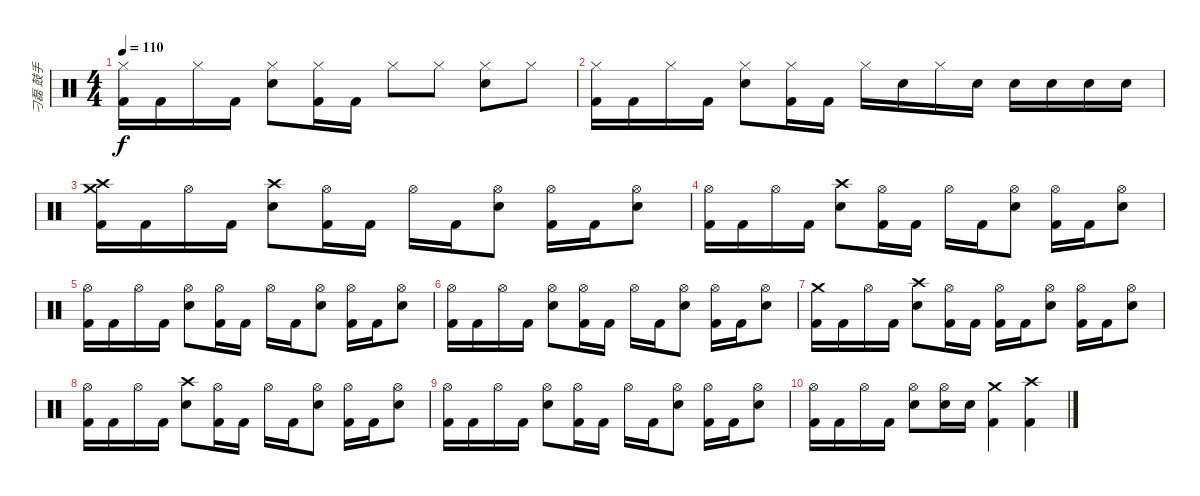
\track ("刁磊 鼓手" "刁磊 鼓手") {instrument percussion}
\staff {score}
\articulation defaults
\ts (4 4)
\tempo 110
\clef neutral
\ks c
("Hi-Hat (closed)" "Kick (hit) 2").16{dy f} "Kick (hit) 2".16 "Hi-Hat (closed)".16 "Kick (hit) 2".16 ("Hi-Hat (closed)" "Snare (hit) 2").8 ("Hi-Hat (closed)" "Kick (hit) 2").16 "Kick (hit) 2".16 "Hi-Hat (closed)".8 "Hi-Hat (closed)".8 ("Hi-Hat (closed)" "Snare (hit) 2").8 "Hi-Hat (closed)".8 |
("Hi-Hat (closed)" "Kick (hit) 2").16 "Kick (hit) 2".16 "Hi-Hat (closed)".16 "Kick (hit) 2".16 ("Hi-Hat (closed)" "Snare (hit) 2").8 ("Hi-Hat (closed)" "Kick (hit) 2").16 "Kick (hit) 2".16 "Hi-Hat (closed)".16 "Snare (hit) 2".16 "Hi-Hat (closed)".16 "Snare (hit) 2".16 "Snare (hit) 2".16 "Snare (hit) 2".16 "Snare (hit) 2".16 "Snare (hit) 2".16 |
("Crash medium (hit)" "Crash high (hit)" "Kick (hit) 2").16 "Kick (hit) 2".16 "Hi-Hat (open)".16 "Kick (hit) 2".16 ("Crash high (hit)" "Snare (hit) 2").8 ("Hi-Hat (open)" "Kick (hit) 2").16 "Kick (hit) 2".16 "Hi-Hat (open)".16 "Kick (hit) 2".16 ("Hi-Hat (open)" "Snare (hit) 2").8 ("Hi-Hat (open)" "Kick (hit) 2").16 "Kick (hit) 2".16 ("Hi-Hat (open)" "Snare (hit) 2").8 |
("Hi-Hat (open)" "Kick (hit) 2").16 "Kick (hit) 2".16 "Hi-Hat (open)".16 "Kick (hit) 2".16 ("Crash high (hit)" "Snare (hit) 2").8 ("Hi-Hat (open)" "Kick (hit) 2").16 "Kick (hit) 2".16 "Hi-Hat (open)".16 "Kick (hit) 2".16 ("Hi-Hat (open)" "Snare (hit) 2").8 ("Hi-Hat (open)" "Kick (hit) 2").16 "Kick (hit) 2".16 ("Hi-Hat (open)" "Snare (hit) 2").8 |
("Hi-Hat (open)" "Kick (hit) 2").16 "Kick (hit) 2".16 "Hi-Hat (open)".16 "Kick (hit) 2".16 ("Hi-Hat (open)" "Snare (hit) 2").8 ("Hi-Hat (open)" "Kick (hit) 2").16 "Kick (hit) 2".16 "Hi-Hat (open)".16 "Kick (hit) 2".16 ("Hi-Hat (open)" "Snare (hit) 2").8 ("Hi-Hat (open)" "Kick (hit) 2").16 "Kick (hit) 2".16 ("Hi-Hat (open)" "Snare (hit) 2").8 |
("Hi-Hat (open)" "Kick (hit) 2").16 "Kick (hit) 2".16 "Hi-Hat (open)".16 "Kick (hit) 2".16 ("Hi-Hat (open)" "Snare (hit) 2").8 ("Hi-Hat (open)" "Kick (hit) 2").16 "Kick (hit) 2".16 "Hi-Hat (open)".16 "Kick (hit) 2".16 ("Hi-Hat (open)" "Snare (hit) 2").8 ("Hi-Hat (open)" "Kick (hit) 2").16 "Kick (hit) 2".16 ("Hi-Hat (open)" "Snare (hit) 2").8 |
("Crash medium (hit)" "Kick (hit) 2").16 "Kick (hit) 2".16 "Hi-Hat (open)".16 "Kick (hit) 2".16 ("Crash high (hit)" "Snare (hit) 2").8 ("Hi-Hat (open)" "Kick (hit) 2").16 "Kick (hit) 2".16 ("Hi-Hat (open)" "Kick (hit) 2").16 "Kick (hit) 2".16 ("Hi-Hat (open)" "Snare (hit) 2").8 ("Hi-Hat (open)" "Kick (hit) 2").16 "Kick (hit) 2".16 ("Hi-Hat (open)" "Snare (hit) 2").8 |
("Hi-Hat (open)" "Kick (hit) 2").16 "Kick (hit) 2".16 "Hi-Hat (open)".16 "Kick (hit) 2".16 ("Crash high (hit)" "Snare (hit) 2").8 ("Hi-Hat (open)" "Kick (hit) 2").16 "Kick (hit) 2".16 "Hi-Hat (open)".16 "Kick (hit) 2".16 ("Hi-Hat (open)" "Snare (hit) 2").8 ("Hi-Hat (open)" "Kick (hit) 2").16 "Kick (hit) 2".16 ("Hi-Hat (open)" "Snare (hit) 2").8 |
("Hi-Hat (open)" "Kick (hit) 2").16 "Kick (hit) 2".16 "Hi-Hat (open)".16 "Kick (hit) 2".16 ("Hi-Hat (open)" "Snare (hit) 2").8 ("Hi-Hat (open)" "Kick (hit) 2").16 "Kick (hit) 2".16 "Hi-Hat (open)".16 "Kick (hit) 2".16 ("Hi-Hat (open)" "Snare (hit) 2").8 ("Hi-Hat (open)" "Kick (hit) 2").16 "Kick (hit) 2".16 ("Hi-Hat (open)" "Snare (hit) 2").8 |
("Hi-Hat (open)" "Kick (hit) 2").16 "Kick (hit) 2".16 "Hi-Hat (open)".16 "Kick (hit) 2".16 ("Hi-Hat (open)" "Snare (hit) 2").8 ("Hi-Hat (open)" "Snare (hit) 2").16 "Snare (hit) 2".16 ("Crash medium (hit)" "Kick (hit) 2").4 ("Crash high (hit)" "Kick (hit) 2").4
